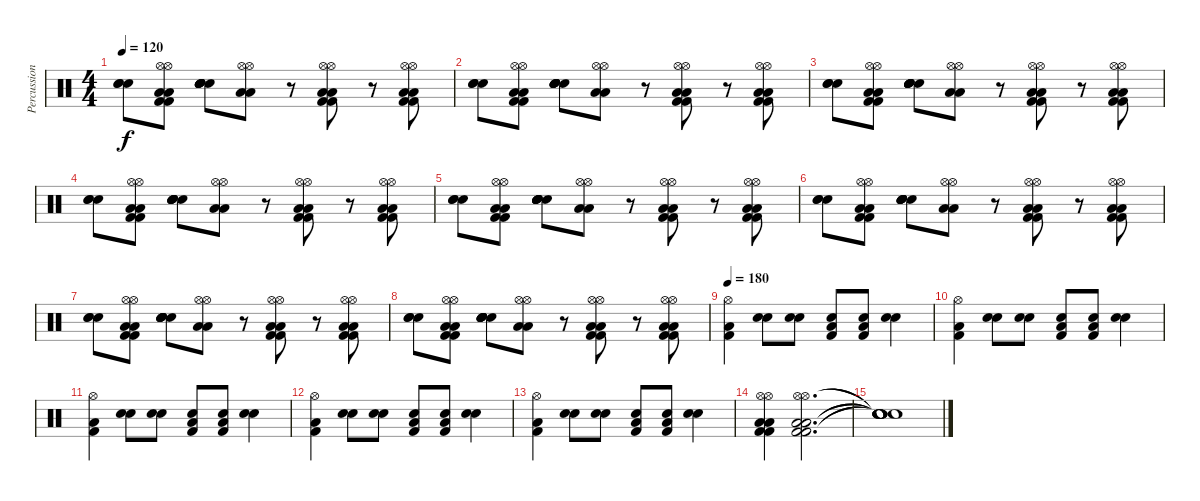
\track ("Percussions" "Percussion") {instrument percussion}
\staff {score}
\articulation defaults
\ts (4 4)
\tempo 120
\clef neutral
\ks c
("Electric Snare (hit)" "Electric Snare (hit)" "Electric Snare (hit)").8{dy f} ("Hi-Hat (open)" "Hi-Hat (open)" "Kick (hit) 2" "Low Floor Tom (hit)" "Low Floor Tom (hit)" "Kick (hit) 2").8 ("Snare (hit) 2" "Snare (hit) 2" "Snare (hit) 2" "Electric Snare (hit)" "Electric Snare (hit)" "Electric Snare (hit)").8 ("Hi-Hat (open)" "Hi-Hat (open)" "Low Floor Tom (hit)" "Low Floor Tom (hit)").8 r.8 ("Hi-Hat (open)" "Hi-Hat (open)" "Low Floor Tom (hit)" "Low Floor Tom (hit)" "Kick (hit) 2" "Kick (hit) 2").8 r.8 ("Hi-Hat (open)" "Hi-Hat (open)" "Low Floor Tom (hit)" "Low Floor Tom (hit)" "Kick (hit) 2" "Kick (hit) 2").8 |
("Electric Snare (hit)" "Electric Snare (hit)" "Electric Snare (hit)").8 ("Hi-Hat (open)" "Hi-Hat (open)" "Kick (hit) 2" "Low Floor Tom (hit)" "Low Floor Tom (hit)" "Kick (hit) 2").8 ("Snare (hit) 2" "Snare (hit) 2" "Snare (hit) 2" "Electric Snare (hit)" "Electric Snare (hit)" "Electric Snare (hit)").8 ("Hi-Hat (open)" "Hi-Hat (open)" "Low Floor Tom (hit)" "Low Floor Tom (hit)").8 r.8 ("Hi-Hat (open)" "Hi-Hat (open)" "Low Floor Tom (hit)" "Low Floor Tom (hit)" "Kick (hit) 2" "Kick (hit) 2").8 r.8 ("Hi-Hat (open)" "Hi-Hat (open)" "Low Floor Tom (hit)" "Low Floor Tom (hit)" "Kick (hit) 2" "Kick (hit) 2").8 |
("Electric Snare (hit)" "Electric Snare (hit)" "Electric Snare (hit)").8 ("Hi-Hat (open)" "Hi-Hat (open)" "Kick (hit) 2" "Low Floor Tom (hit)" "Low Floor Tom (hit)" "Kick (hit) 2").8 ("Snare (hit) 2" "Snare (hit) 2" "Snare (hit) 2" "Electric Snare (hit)" "Electric Snare (hit)" "Electric Snare (hit)").8 ("Hi-Hat (open)" "Hi-Hat (open)" "Low Floor Tom (hit)" "Low Floor Tom (hit)").8 r.8 ("Hi-Hat (open)" "Hi-Hat (open)" "Low Floor Tom (hit)" "Low Floor Tom (hit)" "Kick (hit) 2" "Kick (hit) 2").8 r.8 ("Hi-Hat (open)" "Hi-Hat (open)" "Low Floor Tom (hit)" "Low Floor Tom (hit)" "Kick (hit) 2" "Kick (hit) 2").8 |
("Electric Snare (hit)" "Electric Snare (hit)" "Electric Snare (hit)").8 ("Hi-Hat (open)" "Hi-Hat (open)" "Kick (hit) 2" "Low Floor Tom (hit)" "Low Floor Tom (hit)" "Kick (hit) 2").8 ("Snare (hit) 2" "Snare (hit) 2" "Snare (hit) 2" "Electric Snare (hit)" "Electric Snare (hit)" "Electric Snare (hit)").8 ("Hi-Hat (open)" "Hi-Hat (open)" "Low Floor Tom (hit)" "Low Floor Tom (hit)").8 r.8 ("Hi-Hat (open)" "Hi-Hat (open)" "Low Floor Tom (hit)" "Low Floor Tom (hit)" "Kick (hit) 2" "Kick (hit) 2").8 r.8 ("Hi-Hat (open)" "Hi-Hat (open)" "Low Floor Tom (hit)" "Low Floor Tom (hit)" "Kick (hit) 2" "Kick (hit) 2").8 |
("Electric Snare (hit)" "Electric Snare (hit)" "Electric Snare (hit)").8 ("Hi-Hat (open)" "Hi-Hat (open)" "Kick (hit) 2" "Low Floor Tom (hit)" "Low Floor Tom (hit)" "Kick (hit) 2").8 ("Snare (hit) 2" "Snare (hit) 2" "Snare (hit) 2" "Electric Snare (hit)" "Electric Snare (hit)" "Electric Snare (hit)").8 ("Hi-Hat (open)" "Hi-Hat (open)" "Low Floor Tom (hit)" "Low Floor Tom (hit)").8 r.8 ("Hi-Hat (open)" "Hi-Hat (open)" "Low Floor Tom (hit)" "Low Floor Tom (hit)" "Kick (hit) 2" "Kick (hit) 2").8 r.8 ("Hi-Hat (open)" "Hi-Hat (open)" "Low Floor Tom (hit)" "Low Floor Tom (hit)" "Kick (hit) 2" "Kick (hit) 2").8 |
("Electric Snare (hit)" "Electric Snare (hit)" "Electric Snare (hit)").8 ("Hi-Hat (open)" "Hi-Hat (open)" "Kick (hit) 2" "Low Floor Tom (hit)" "Low Floor Tom (hit)" "Kick (hit) 2").8 ("Snare (hit) 2" "Snare (hit) 2" "Snare (hit) 2" "Electric Snare (hit)" "Electric Snare (hit)" "Electric Snare (hit)").8 ("Hi-Hat (open)" "Hi-Hat (open)" "Low Floor Tom (hit)" "Low Floor Tom (hit)").8 r.8 ("Hi-Hat (open)" "Hi-Hat (open)" "Low Floor Tom (hit)" "Low Floor Tom (hit)" "Kick (hit) 2" "Kick (hit) 2").8 r.8 ("Hi-Hat (open)" "Hi-Hat (open)" "Low Floor Tom (hit)" "Low Floor Tom (hit)" "Kick (hit) 2" "Kick (hit) 2").8 |
("Electric Snare (hit)" "Electric Snare (hit)" "Electric Snare (hit)").8 ("Hi-Hat (open)" "Hi-Hat (open)" "Kick (hit) 2" "Low Floor Tom (hit)" "Low Floor Tom (hit)" "Kick (hit) 2").8 ("Snare (hit) 2" "Snare (hit) 2" "Snare (hit) 2" "Electric Snare (hit)" "Electric Snare (hit)" "Electric Snare (hit)").8 ("Hi-Hat (open)" "Hi-Hat (open)" "Low Floor Tom (hit)" "Low Floor Tom (hit)").8 r.8 ("Hi-Hat (open)" "Hi-Hat (open)" "Low Floor Tom (hit)" "Low Floor Tom (hit)" "Kick (hit) 2" "Kick (hit) 2").8 r.8 ("Hi-Hat (open)" "Hi-Hat (open)" "Low Floor Tom (hit)" "Low Floor Tom (hit)" "Kick (hit) 2" "Kick (hit) 2").8 |
("Electric Snare (hit)" "Electric Snare (hit)" "Electric Snare (hit)").8 ("Hi-Hat (open)" "Hi-Hat (open)" "Kick (hit) 2" "Low Floor Tom (hit)" "Low Floor Tom (hit)" "Kick (hit) 2").8 ("Snare (hit) 2" "Snare (hit) 2" "Snare (hit) 2" "Electric Snare (hit)" "Electric Snare (hit)" "Electric Snare (hit)").8 ("Hi-Hat (open)" "Hi-Hat (open)" "Low Floor Tom (hit)" "Low Floor Tom (hit)").8 r.8 ("Hi-Hat (open)" "Hi-Hat (open)" "Low Floor Tom (hit)" "Low Floor Tom (hit)" "Kick (hit) 2" "Kick (hit) 2").8 r.8 ("Hi-Hat (open)" "Hi-Hat (open)" "Low Floor Tom (hit)" "Low Floor Tom (hit)" "Kick (hit) 2" "Kick (hit) 2").8 |
\tempo 180
("Hi-Hat (open)" "Kick (hit) 2" "Low Floor Tom (hit)").4 ("Snare (hit) 2" "Electric Snare (hit)").8 ("Snare (hit) 2" "Electric Snare (hit)").8 ("Snare (hit) 2" "Kick (hit) 2" "Low Floor Tom (hit)").8 ("Snare (hit) 2" "Kick (hit) 2" "Low Floor Tom (hit)").8 ("Snare (hit) 2" "Electric Snare (hit)").4 |
("Hi-Hat (open)" "Kick (hit) 2" "Low Floor Tom (hit)").4 ("Snare (hit) 2" "Electric Snare (hit)").8 ("Snare (hit) 2" "Electric Snare (hit)").8 ("Snare (hit) 2" "Kick (hit) 2" "Low Floor Tom (hit)").8 ("Snare (hit) 2" "Kick (hit) 2" "Low Floor Tom (hit)").8 ("Snare (hit) 2" "Electric Snare (hit)").4 |
("Hi-Hat (open)" "Kick (hit) 2" "Low Floor Tom (hit)").4 ("Snare (hit) 2" "Electric Snare (hit)").8 ("Snare (hit) 2" "Electric Snare (hit)").8 ("Snare (hit) 2" "Kick (hit) 2" "Low Floor Tom (hit)").8 ("Snare (hit) 2" "Kick (hit) 2" "Low Floor Tom (hit)").8 ("Snare (hit) 2" "Electric Snare (hit)").4 |
("Hi-Hat (open)" "Kick (hit) 2" "Low Floor Tom (hit)").4 ("Snare (hit) 2" "Electric Snare (hit)").8 ("Snare (hit) 2" "Electric Snare (hit)").8 ("Snare (hit) 2" "Kick (hit) 2" "Low Floor Tom (hit)").8 ("Snare (hit) 2" "Kick (hit) 2" "Low Floor Tom (hit)").8 ("Snare (hit) 2" "Electric Snare (hit)").4 |
("Hi-Hat (open)" "Kick (hit) 2" "Low Floor Tom (hit)").4 ("Snare (hit) 2" "Electric Snare (hit)").8 ("Snare (hit) 2" "Electric Snare (hit)").8 ("Snare (hit) 2" "Kick (hit) 2" "Low Floor Tom (hit)").8 ("Snare (hit) 2" "Kick (hit) 2" "Low Floor Tom (hit)").8 ("Snare (hit) 2" "Electric Snare (hit)").4 |
("Hi-Hat (open)" "Hi-Hat (open)" "Low Floor Tom (hit)" "Low Floor Tom (hit)" "Kick (hit) 2" "Kick (hit) 2").4 ("Hi-Hat (open)" "Hi-Hat (open)" "Low Floor Tom (hit)" "Low Floor Tom (hit)" "Kick (hit) 2" "Kick (hit) 2").2{d} |
("Snare (hit)"{t} "Snare (hit)"{t} "Snare (hit)"{t} "Snare (hit)"{t} "Snare (hit)"{t} "Snare (hit)"{t}).1
